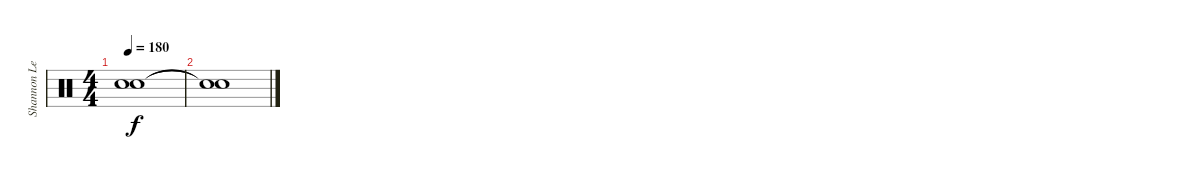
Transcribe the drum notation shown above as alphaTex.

\track ("Shannon Leto" "Shannon Le") {instrument percussion}
\staff {score}
\articulation defaults
\ts (4 4)
\tempo 180
\clef neutral
\ks c
("Snare (hit)"{t} "Snare (hit)"{t}).1{dy f} |
("Snare (hit)"{t} "Snare (hit)"{t}).1
